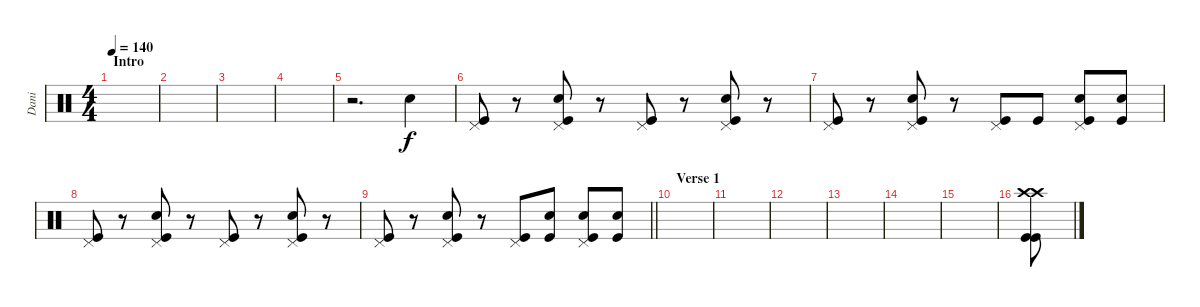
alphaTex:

\track ("Dani" "Dani") {instrument percussion}
\staff {score}
\articulation defaults
\ts (4 4)
\section ("" "Intro")
\tempo 140
\clef neutral
\ks c
|
|
|
|
r.2{d} "Snare (hit) 2".4 |
("Pedal Hi-Hat (hit)" "Kick (hit)").8 r.8 ("Pedal Hi-Hat (hit)" "Snare (hit) 2" "Kick (hit)").8 r.8 ("Pedal Hi-Hat (hit)" "Kick (hit)").8 r.8 ("Pedal Hi-Hat (hit)" "Snare (hit) 2" "Kick (hit)").8 r.8 |
("Pedal Hi-Hat (hit)" "Kick (hit)").8 r.8 ("Pedal Hi-Hat (hit)" "Snare (hit) 2" "Kick (hit)").8 r.8 ("Pedal Hi-Hat (hit)" "Kick (hit)").8 "Kick (hit)".8 ("Pedal Hi-Hat (hit)" "Snare (hit) 2" "Kick (hit)").8 ("Snare (hit) 2" "Kick (hit)").8 |
("Pedal Hi-Hat (hit)" "Kick (hit)").8 r.8 ("Pedal Hi-Hat (hit)" "Snare (hit) 2" "Kick (hit)").8 r.8 ("Pedal Hi-Hat (hit)" "Kick (hit)").8 r.8 ("Pedal Hi-Hat (hit)" "Snare (hit) 2" "Kick (hit)").8 r.8 |
\barLineRight lightlight
("Pedal Hi-Hat (hit)" "Kick (hit)").8 r.8 ("Pedal Hi-Hat (hit)" "Snare (hit) 2" "Kick (hit)").8 r.8 ("Pedal Hi-Hat (hit)" "Kick (hit)").8 ("Snare (hit) 2" "Kick (hit)").8 ("Pedal Hi-Hat (hit)" "Snare (hit) 2" "Kick (hit)").8 ("Snare (hit) 2" "Kick (hit)").8 |
\section ("" "Verse 1")
|
|
|
|
|
|
("Crash high (hit)" "Crash high (hit)" "Kick (hit)" "Kick (hit)").8
